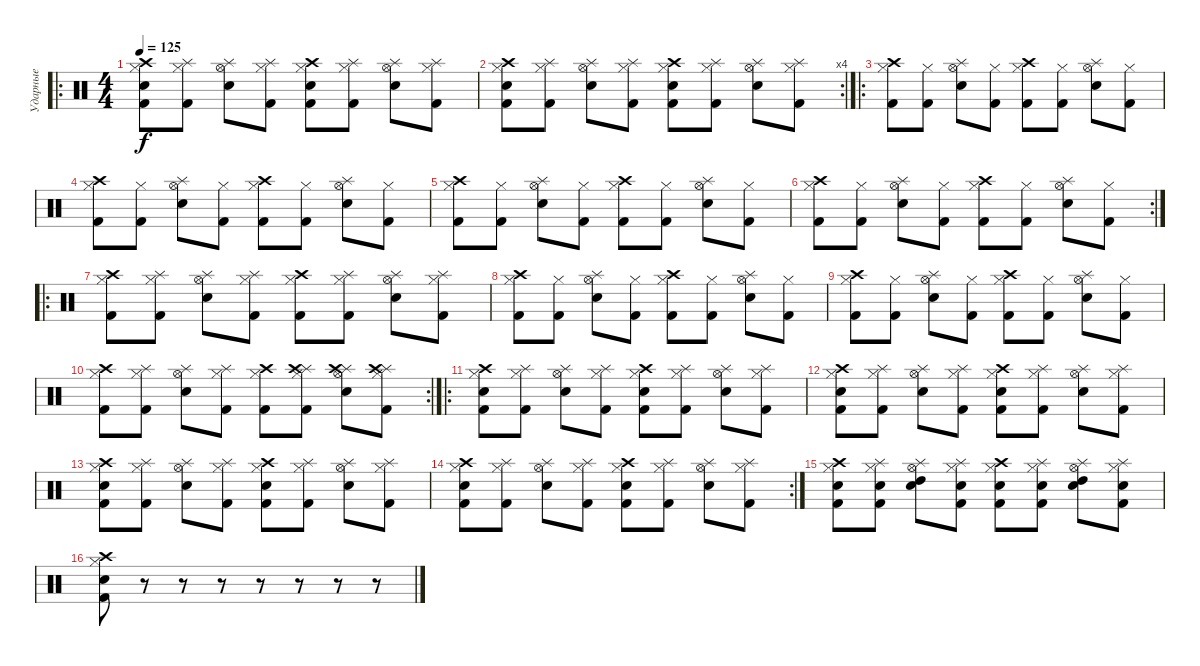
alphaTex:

\track ("Ударные" "Ударные") {instrument percussion}
\staff {score}
\articulation defaults
\ro
\ts (4 4)
\tempo 125
\clef neutral
\ks c
("Kick (hit) 2" "Hi-Hat (closed)" "Snare (hit) 2" "Crash high (hit)").8{dy f} ("Kick (hit) 2" "Hi-Hat (closed)" "Splash (hit)").8 ("Electric Snare (hit)" "Hi-Hat (open)" "Splash (hit)").8 ("Kick (hit) 2" "Hi-Hat (closed)" "Splash (hit)").8 ("Kick (hit) 2" "Hi-Hat (closed)" "Snare (hit) 2" "Crash high (hit)").8 ("Kick (hit) 2" "Hi-Hat (closed)" "Splash (hit)").8 ("Electric Snare (hit)" "Hi-Hat (open)" "Splash (hit)").8 ("Kick (hit) 2" "Hi-Hat (closed)" "Splash (hit)").8 |
\rc 4
("Kick (hit) 2" "Hi-Hat (closed)" "Snare (hit) 2" "Crash high (hit)").8 ("Kick (hit) 2" "Hi-Hat (closed)" "Splash (hit)").8 ("Electric Snare (hit)" "Hi-Hat (open)" "Splash (hit)").8 ("Kick (hit) 2" "Hi-Hat (closed)" "Splash (hit)").8 ("Kick (hit) 2" "Hi-Hat (closed)" "Snare (hit) 2" "Crash high (hit)").8 ("Kick (hit) 2" "Hi-Hat (closed)" "Splash (hit)").8 ("Electric Snare (hit)" "Hi-Hat (open)" "Splash (hit)").8 ("Kick (hit) 2" "Hi-Hat (closed)" "Splash (hit)").8 |
\ro
("Kick (hit) 2" "Hi-Hat (closed)" "Crash high (hit)").8 ("Kick (hit) 2" "Hi-Hat (closed)").8 ("Electric Snare (hit)" "Hi-Hat (open)" "Splash (hit)").8 ("Kick (hit) 2" "Hi-Hat (closed)").8 ("Kick (hit) 2" "Hi-Hat (closed)" "Crash high (hit)").8 ("Kick (hit) 2" "Hi-Hat (closed)").8 ("Electric Snare (hit)" "Hi-Hat (open)" "Splash (hit)").8 ("Kick (hit) 2" "Hi-Hat (closed)").8 |
("Kick (hit) 2" "Hi-Hat (closed)" "Crash high (hit)").8 ("Kick (hit) 2" "Hi-Hat (closed)").8 ("Electric Snare (hit)" "Hi-Hat (open)" "Splash (hit)").8 ("Kick (hit) 2" "Hi-Hat (closed)").8 ("Kick (hit) 2" "Hi-Hat (closed)" "Crash high (hit)").8 ("Kick (hit) 2" "Hi-Hat (closed)").8 ("Electric Snare (hit)" "Hi-Hat (open)" "Splash (hit)").8 ("Kick (hit) 2" "Hi-Hat (closed)").8 |
("Kick (hit) 2" "Hi-Hat (closed)" "Crash high (hit)").8 ("Kick (hit) 2" "Hi-Hat (closed)").8 ("Electric Snare (hit)" "Hi-Hat (open)" "Splash (hit)").8 ("Kick (hit) 2" "Hi-Hat (closed)").8 ("Kick (hit) 2" "Hi-Hat (closed)" "Crash high (hit)").8 ("Kick (hit) 2" "Hi-Hat (closed)").8 ("Electric Snare (hit)" "Hi-Hat (open)" "Splash (hit)").8 ("Kick (hit) 2" "Hi-Hat (closed)").8 |
\rc 2
("Kick (hit) 2" "Hi-Hat (closed)" "Crash high (hit)").8 ("Kick (hit) 2" "Hi-Hat (closed)").8 ("Electric Snare (hit)" "Hi-Hat (open)" "Splash (hit)").8 ("Kick (hit) 2" "Hi-Hat (closed)").8 ("Kick (hit) 2" "Hi-Hat (closed)" "Crash high (hit)").8 ("Kick (hit) 2" "Hi-Hat (closed)").8 ("Electric Snare (hit)" "Hi-Hat (open)" "Splash (hit)").8 ("Kick (hit) 2" "Hi-Hat (closed)").8 |
\ro
("Kick (hit) 2" "Hi-Hat (closed)" "Crash high (hit)").8 ("Kick (hit) 2" "Hi-Hat (closed)" "Splash (hit)").8 ("Electric Snare (hit)" "Hi-Hat (open)" "Splash (hit)").8 ("Kick (hit) 2" "Hi-Hat (closed)" "Splash (hit)").8 ("Kick (hit) 2" "Hi-Hat (closed)" "Crash high (hit)").8 ("Kick (hit) 2" "Hi-Hat (closed)" "Splash (hit)").8 ("Electric Snare (hit)" "Hi-Hat (open)" "Splash (hit)").8 ("Kick (hit) 2" "Hi-Hat (closed)" "Splash (hit)").8 |
("Kick (hit) 2" "Hi-Hat (closed)" "Crash high (hit)").8 ("Kick (hit) 2" "Hi-Hat (closed)").8 ("Electric Snare (hit)" "Hi-Hat (open)" "Splash (hit)").8 ("Kick (hit) 2" "Hi-Hat (closed)").8 ("Kick (hit) 2" "Hi-Hat (closed)" "Crash high (hit)").8 ("Kick (hit) 2" "Hi-Hat (closed)").8 ("Electric Snare (hit)" "Hi-Hat (open)" "Splash (hit)").8 ("Kick (hit) 2" "Hi-Hat (closed)").8 |
("Kick (hit) 2" "Hi-Hat (closed)" "Crash high (hit)").8 ("Kick (hit) 2" "Hi-Hat (closed)").8 ("Electric Snare (hit)" "Hi-Hat (open)" "Splash (hit)").8 ("Kick (hit) 2" "Hi-Hat (closed)").8 ("Kick (hit) 2" "Hi-Hat (closed)" "Crash high (hit)").8 ("Kick (hit) 2" "Hi-Hat (closed)").8 ("Electric Snare (hit)" "Hi-Hat (open)" "Splash (hit)").8 ("Kick (hit) 2" "Hi-Hat (closed)").8 |
\rc 2
("Kick (hit) 2" "Hi-Hat (closed)" "Crash high (hit)").8 ("Kick (hit) 2" "Hi-Hat (closed)" "Splash (hit)").8 ("Electric Snare (hit)" "Hi-Hat (open)" "Splash (hit)").8 ("Kick (hit) 2" "Hi-Hat (closed)" "Splash (hit)").8 ("Kick (hit) 2" "Hi-Hat (closed)" "Crash high (hit)").8 ("Kick (hit) 2" "Hi-Hat (closed)" "Splash (hit)" "Crash high (hit)").8 ("Electric Snare (hit)" "Hi-Hat (open)" "Splash (hit)" "Crash high (hit)").8 ("Kick (hit) 2" "Hi-Hat (closed)" "Splash (hit)" "Crash high (hit)").8 |
\ro
("Kick (hit) 2" "Hi-Hat (closed)" "Snare (hit) 2" "Crash high (hit)").8 ("Kick (hit) 2" "Hi-Hat (closed)" "Splash (hit)").8 ("Electric Snare (hit)" "Hi-Hat (open)" "Splash (hit)").8 ("Kick (hit) 2" "Hi-Hat (closed)" "Splash (hit)").8 ("Kick (hit) 2" "Hi-Hat (closed)" "Snare (hit) 2" "Crash high (hit)").8 ("Kick (hit) 2" "Hi-Hat (closed)" "Splash (hit)").8 ("Electric Snare (hit)" "Hi-Hat (open)" "Splash (hit)").8 ("Kick (hit) 2" "Hi-Hat (closed)" "Splash (hit)").8 |
("Kick (hit) 2" "Hi-Hat (closed)" "Snare (hit) 2" "Crash high (hit)").8 ("Kick (hit) 2" "Hi-Hat (closed)" "Splash (hit)").8 ("Electric Snare (hit)" "Hi-Hat (open)" "Splash (hit)").8 ("Kick (hit) 2" "Hi-Hat (closed)" "Splash (hit)").8 ("Kick (hit) 2" "Hi-Hat (closed)" "Snare (hit) 2" "Crash high (hit)").8 ("Kick (hit) 2" "Hi-Hat (closed)" "Splash (hit)").8 ("Electric Snare (hit)" "Hi-Hat (open)" "Splash (hit)").8 ("Kick (hit) 2" "Hi-Hat (closed)" "Splash (hit)").8 |
("Kick (hit) 2" "Hi-Hat (closed)" "Snare (hit) 2" "Crash high (hit)").8 ("Kick (hit) 2" "Hi-Hat (closed)" "Splash (hit)").8 ("Electric Snare (hit)" "Hi-Hat (open)" "Splash (hit)").8 ("Kick (hit) 2" "Hi-Hat (closed)" "Splash (hit)").8 ("Kick (hit) 2" "Hi-Hat (closed)" "Snare (hit) 2" "Crash high (hit)").8 ("Kick (hit) 2" "Hi-Hat (closed)" "Splash (hit)").8 ("Electric Snare (hit)" "Hi-Hat (open)" "Splash (hit)").8 ("Kick (hit) 2" "Hi-Hat (closed)" "Splash (hit)").8 |
\rc 2
("Kick (hit) 2" "Hi-Hat (closed)" "Snare (hit) 2" "Crash high (hit)").8 ("Kick (hit) 2" "Hi-Hat (closed)" "Splash (hit)").8 ("Electric Snare (hit)" "Hi-Hat (open)" "Splash (hit)").8 ("Kick (hit) 2" "Hi-Hat (closed)" "Splash (hit)").8 ("Kick (hit) 2" "Hi-Hat (closed)" "Snare (hit) 2" "Crash high (hit)").8 ("Kick (hit) 2" "Hi-Hat (closed)" "Splash (hit)").8 ("Electric Snare (hit)" "Hi-Hat (open)" "Splash (hit)").8 ("Kick (hit) 2" "Hi-Hat (closed)" "Splash (hit)").8 |
("Kick (hit) 2" "Hi-Hat (closed)" "Snare (hit) 2" "Crash high (hit)").8 ("Kick (hit) 2" "Hi-Hat (closed)" "Splash (hit)" "Snare (hit) 2").8 ("Electric Snare (hit)" "Hi-Hat (open)" "Splash (hit)" "High Tom (hit)").8 ("Kick (hit) 2" "Hi-Hat (closed)" "Splash (hit)" "Snare (hit) 2").8 ("Kick (hit) 2" "Hi-Hat (closed)" "Snare (hit) 2" "Crash high (hit)").8 ("Kick (hit) 2" "Hi-Hat (closed)" "Splash (hit)" "Snare (hit) 2").8 ("Electric Snare (hit)" "Hi-Hat (open)" "Splash (hit)" "High Tom (hit)").8 ("Kick (hit) 2" "Hi-Hat (closed)" "Splash (hit)" "Snare (hit) 2").8 |
("Kick (hit) 2" "Hi-Hat (closed)" "Snare (hit) 2" "Crash high (hit)").8 r.8 r.8 r.8 r.8 r.8 r.8 r.8
